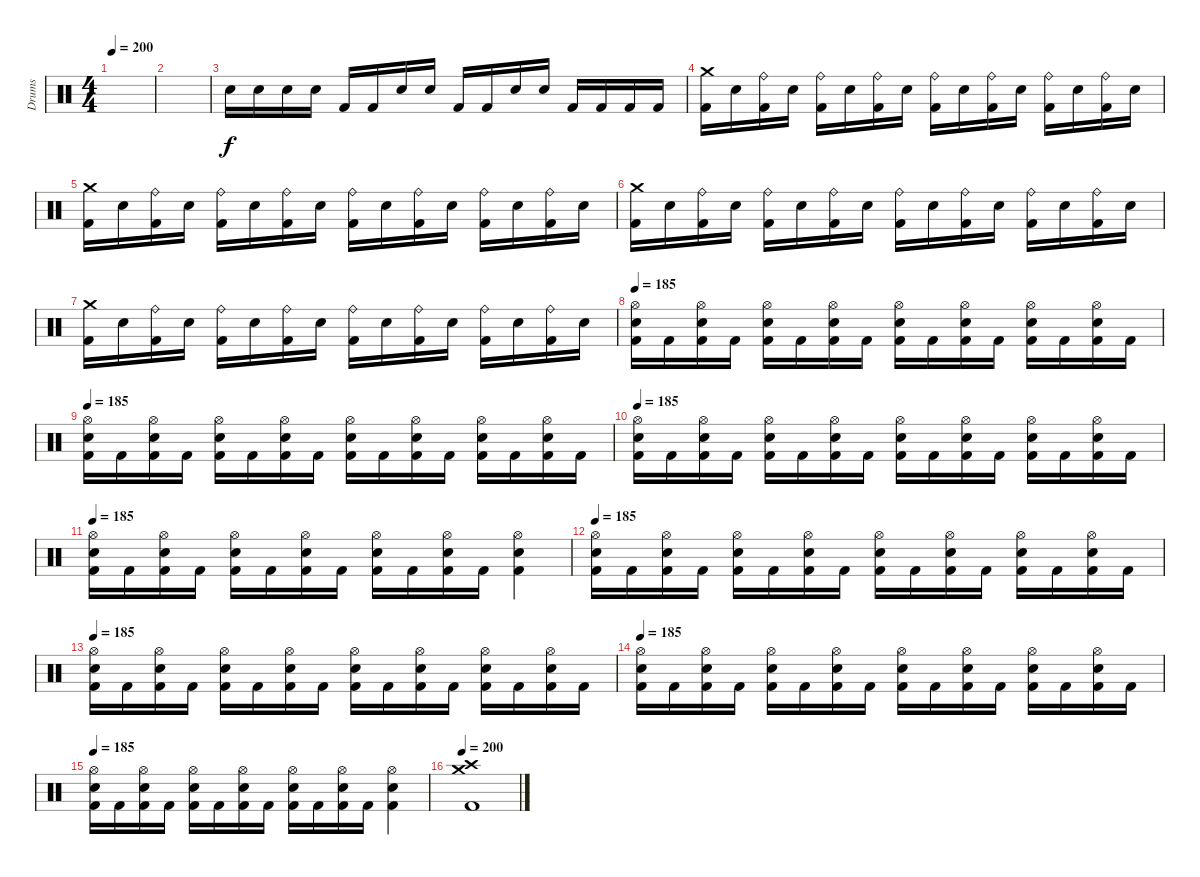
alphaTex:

\track ("Drums" "Drums") {instrument percussion}
\staff {score}
\articulation defaults
\ts (4 4)
\tempo 200
\clef neutral
\ks c
|
|
"Electric Snare (hit)".16 "Electric Snare (hit)".16 "Electric Snare (hit)".16 "Electric Snare (hit)".16 "Kick (hit) 2".16 "Kick (hit) 2".16 "Electric Snare (hit)".16 "Electric Snare (hit)".16 "Kick (hit) 2".16 "Kick (hit) 2".16 "Electric Snare (hit)".16 "Electric Snare (hit)".16 "Kick (hit) 2".16 "Kick (hit) 2".16 "Kick (hit) 2".16 "Kick (hit) 2".16 |
("Crash medium (hit)" "Kick (hit) 2").16 "Electric Snare (hit)".16 ("Ride (bell)" "Kick (hit) 2").16 "Electric Snare (hit)".16 ("Ride (bell)" "Kick (hit) 2").16 "Electric Snare (hit)".16 ("Ride (bell)" "Kick (hit) 2").16 "Electric Snare (hit)".16 ("Ride (bell)" "Kick (hit) 2").16 "Electric Snare (hit)".16 ("Ride (bell)" "Kick (hit) 2").16 "Electric Snare (hit)".16 ("Ride (bell)" "Kick (hit) 2").16 "Electric Snare (hit)".16 ("Ride (bell)" "Kick (hit) 2").16 "Electric Snare (hit)".16 |
("Crash medium (hit)" "Kick (hit) 2").16 "Electric Snare (hit)".16 ("Ride (bell)" "Kick (hit) 2").16 "Electric Snare (hit)".16 ("Ride (bell)" "Kick (hit) 2").16 "Electric Snare (hit)".16 ("Ride (bell)" "Kick (hit) 2").16 "Electric Snare (hit)".16 ("Ride (bell)" "Kick (hit) 2").16 "Electric Snare (hit)".16 ("Ride (bell)" "Kick (hit) 2").16 "Electric Snare (hit)".16 ("Ride (bell)" "Kick (hit) 2").16 "Electric Snare (hit)".16 ("Ride (bell)" "Kick (hit) 2").16 "Electric Snare (hit)".16 |
("Crash medium (hit)" "Kick (hit) 2").16 "Electric Snare (hit)".16 ("Ride (bell)" "Kick (hit) 2").16 "Electric Snare (hit)".16 ("Ride (bell)" "Kick (hit) 2").16 "Electric Snare (hit)".16 ("Ride (bell)" "Kick (hit) 2").16 "Electric Snare (hit)".16 ("Ride (bell)" "Kick (hit) 2").16 "Electric Snare (hit)".16 ("Ride (bell)" "Kick (hit) 2").16 "Electric Snare (hit)".16 ("Ride (bell)" "Kick (hit) 2").16 "Electric Snare (hit)".16 ("Ride (bell)" "Kick (hit) 2").16 "Electric Snare (hit)".16 |
("Crash medium (hit)" "Kick (hit) 2").16 "Electric Snare (hit)".16 ("Ride (bell)" "Kick (hit) 2").16 "Electric Snare (hit)".16 ("Ride (bell)" "Kick (hit) 2").16 "Electric Snare (hit)".16 ("Ride (bell)" "Kick (hit) 2").16 "Electric Snare (hit)".16 ("Ride (bell)" "Kick (hit) 2").16 "Electric Snare (hit)".16 ("Ride (bell)" "Kick (hit) 2").16 "Electric Snare (hit)".16 ("Ride (bell)" "Kick (hit) 2").16 "Electric Snare (hit)".16 ("Ride (bell)" "Kick (hit) 2").16 "Electric Snare (hit)".16 |
\section ("" "")
\tempo 185
("Hi-Hat (open)" "Electric Snare (hit)" "Kick (hit) 2").16 "Kick (hit) 2".16 ("Hi-Hat (open)" "Electric Snare (hit)" "Kick (hit) 2").16 "Kick (hit) 2".16 ("Hi-Hat (open)" "Electric Snare (hit)" "Kick (hit) 2").16 "Kick (hit) 2".16 ("Hi-Hat (open)" "Electric Snare (hit)" "Kick (hit) 2").16 "Kick (hit) 2".16 ("Hi-Hat (open)" "Electric Snare (hit)" "Kick (hit) 2").16 "Kick (hit) 2".16 ("Hi-Hat (open)" "Electric Snare (hit)" "Kick (hit) 2").16 "Kick (hit) 2".16 ("Hi-Hat (open)" "Electric Snare (hit)" "Kick (hit) 2").16 "Kick (hit) 2".16 ("Hi-Hat (open)" "Electric Snare (hit)" "Kick (hit) 2").16 "Kick (hit) 2".16 |
\tempo 185
("Hi-Hat (open)" "Electric Snare (hit)" "Kick (hit) 2").16 "Kick (hit) 2".16 ("Hi-Hat (open)" "Electric Snare (hit)" "Kick (hit) 2").16 "Kick (hit) 2".16 ("Hi-Hat (open)" "Electric Snare (hit)" "Kick (hit) 2").16 "Kick (hit) 2".16 ("Hi-Hat (open)" "Electric Snare (hit)" "Kick (hit) 2").16 "Kick (hit) 2".16 ("Hi-Hat (open)" "Electric Snare (hit)" "Kick (hit) 2").16 "Kick (hit) 2".16 ("Hi-Hat (open)" "Electric Snare (hit)" "Kick (hit) 2").16 "Kick (hit) 2".16 ("Hi-Hat (open)" "Electric Snare (hit)" "Kick (hit) 2").16 "Kick (hit) 2".16 ("Hi-Hat (open)" "Electric Snare (hit)" "Kick (hit) 2").16 "Kick (hit) 2".16 |
\tempo 185
("Hi-Hat (open)" "Electric Snare (hit)" "Kick (hit) 2").16 "Kick (hit) 2".16 ("Hi-Hat (open)" "Electric Snare (hit)" "Kick (hit) 2").16 "Kick (hit) 2".16 ("Hi-Hat (open)" "Electric Snare (hit)" "Kick (hit) 2").16 "Kick (hit) 2".16 ("Hi-Hat (open)" "Electric Snare (hit)" "Kick (hit) 2").16 "Kick (hit) 2".16 ("Hi-Hat (open)" "Electric Snare (hit)" "Kick (hit) 2").16 "Kick (hit) 2".16 ("Hi-Hat (open)" "Electric Snare (hit)" "Kick (hit) 2").16 "Kick (hit) 2".16 ("Hi-Hat (open)" "Electric Snare (hit)" "Kick (hit) 2").16 "Kick (hit) 2".16 ("Hi-Hat (open)" "Electric Snare (hit)" "Kick (hit) 2").16 "Kick (hit) 2".16 |
\tempo 185
("Hi-Hat (open)" "Electric Snare (hit)" "Kick (hit) 2").16 "Kick (hit) 2".16 ("Hi-Hat (open)" "Electric Snare (hit)" "Kick (hit) 2").16 "Kick (hit) 2".16 ("Hi-Hat (open)" "Electric Snare (hit)" "Kick (hit) 2").16 "Kick (hit) 2".16 ("Hi-Hat (open)" "Electric Snare (hit)" "Kick (hit) 2").16 "Kick (hit) 2".16 ("Hi-Hat (open)" "Electric Snare (hit)" "Kick (hit) 2").16 "Kick (hit) 2".16 ("Hi-Hat (open)" "Electric Snare (hit)" "Kick (hit) 2").16 "Kick (hit) 2".16 ("Hi-Hat (open)" "Electric Snare (hit)" "Kick (hit) 2").4 |
\tempo 185
("Hi-Hat (open)" "Electric Snare (hit)" "Kick (hit) 2").16 "Kick (hit) 2".16 ("Hi-Hat (open)" "Electric Snare (hit)" "Kick (hit) 2").16 "Kick (hit) 2".16 ("Hi-Hat (open)" "Electric Snare (hit)" "Kick (hit) 2").16 "Kick (hit) 2".16 ("Hi-Hat (open)" "Electric Snare (hit)" "Kick (hit) 2").16 "Kick (hit) 2".16 ("Hi-Hat (open)" "Electric Snare (hit)" "Kick (hit) 2").16 "Kick (hit) 2".16 ("Hi-Hat (open)" "Electric Snare (hit)" "Kick (hit) 2").16 "Kick (hit) 2".16 ("Hi-Hat (open)" "Electric Snare (hit)" "Kick (hit) 2").16 "Kick (hit) 2".16 ("Hi-Hat (open)" "Electric Snare (hit)" "Kick (hit) 2").16 "Kick (hit) 2".16 |
\tempo 185
("Hi-Hat (open)" "Electric Snare (hit)" "Kick (hit) 2").16 "Kick (hit) 2".16 ("Hi-Hat (open)" "Electric Snare (hit)" "Kick (hit) 2").16 "Kick (hit) 2".16 ("Hi-Hat (open)" "Electric Snare (hit)" "Kick (hit) 2").16 "Kick (hit) 2".16 ("Hi-Hat (open)" "Electric Snare (hit)" "Kick (hit) 2").16 "Kick (hit) 2".16 ("Hi-Hat (open)" "Electric Snare (hit)" "Kick (hit) 2").16 "Kick (hit) 2".16 ("Hi-Hat (open)" "Electric Snare (hit)" "Kick (hit) 2").16 "Kick (hit) 2".16 ("Hi-Hat (open)" "Electric Snare (hit)" "Kick (hit) 2").16 "Kick (hit) 2".16 ("Hi-Hat (open)" "Electric Snare (hit)" "Kick (hit) 2").16 "Kick (hit) 2".16 |
\tempo 185
("Hi-Hat (open)" "Electric Snare (hit)" "Kick (hit) 2").16 "Kick (hit) 2".16 ("Hi-Hat (open)" "Electric Snare (hit)" "Kick (hit) 2").16 "Kick (hit) 2".16 ("Hi-Hat (open)" "Electric Snare (hit)" "Kick (hit) 2").16 "Kick (hit) 2".16 ("Hi-Hat (open)" "Electric Snare (hit)" "Kick (hit) 2").16 "Kick (hit) 2".16 ("Hi-Hat (open)" "Electric Snare (hit)" "Kick (hit) 2").16 "Kick (hit) 2".16 ("Hi-Hat (open)" "Electric Snare (hit)" "Kick (hit) 2").16 "Kick (hit) 2".16 ("Hi-Hat (open)" "Electric Snare (hit)" "Kick (hit) 2").16 "Kick (hit) 2".16 ("Hi-Hat (open)" "Electric Snare (hit)" "Kick (hit) 2").16 "Kick (hit) 2".16 |
\tempo 185
("Hi-Hat (open)" "Electric Snare (hit)" "Kick (hit) 2").16 "Kick (hit) 2".16 ("Hi-Hat (open)" "Electric Snare (hit)" "Kick (hit) 2").16 "Kick (hit) 2".16 ("Hi-Hat (open)" "Electric Snare (hit)" "Kick (hit) 2").16 "Kick (hit) 2".16 ("Hi-Hat (open)" "Electric Snare (hit)" "Kick (hit) 2").16 "Kick (hit) 2".16 ("Hi-Hat (open)" "Electric Snare (hit)" "Kick (hit) 2").16 "Kick (hit) 2".16 ("Hi-Hat (open)" "Electric Snare (hit)" "Kick (hit) 2").16 "Kick (hit) 2".16 ("Hi-Hat (open)" "Electric Snare (hit)" "Kick (hit) 2").4 |
\section ("" "")
\tempo 200
("Crash high (hit)" "Crash medium (hit)" "Kick (hit) 2").1
